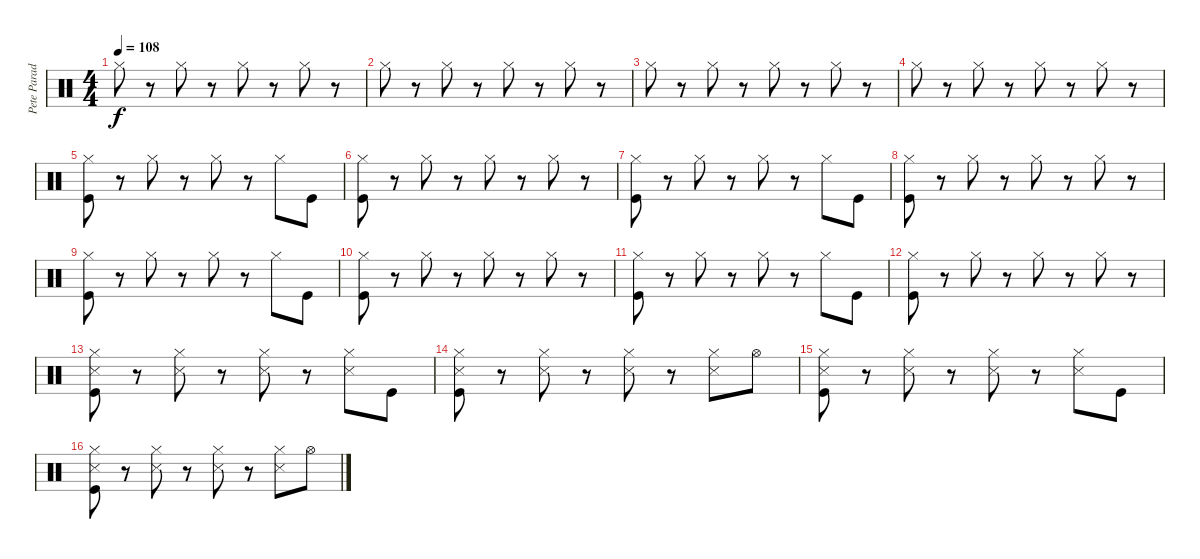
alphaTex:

\track ("Pete Parada - Drums" "Pete Parad") {instrument percussion}
\staff {score}
\articulation defaults
\ts (4 4)
\tempo 108
\clef neutral
\ks c "Hi-Hat (closed)".8{dy f}
r.8 "Hi-Hat (closed)".8 r.8 "Hi-Hat (closed)".8 r.8 "Hi-Hat (closed)".8 r.8 |
"Hi-Hat (closed)".8 r.8 "Hi-Hat (closed)".8 r.8 "Hi-Hat (closed)".8 r.8 "Hi-Hat (closed)".8 r.8 |
"Hi-Hat (closed)".8 r.8 "Hi-Hat (closed)".8 r.8 "Hi-Hat (closed)".8 r.8 "Hi-Hat (closed)".8 r.8 |
"Hi-Hat (closed)".8 r.8 "Hi-Hat (closed)".8 r.8 "Hi-Hat (closed)".8 r.8 "Hi-Hat (closed)".8 r.8 |
("Hi-Hat (closed)" "Kick (hit)").8 r.8 "Hi-Hat (closed)".8 r.8 "Hi-Hat (closed)".8 r.8 "Hi-Hat (closed)".8 "Kick (hit)".8 |
("Hi-Hat (closed)" "Kick (hit)").8 r.8 "Hi-Hat (closed)".8 r.8 "Hi-Hat (closed)".8 r.8 "Hi-Hat (closed)".8 r.8 |
("Hi-Hat (closed)" "Kick (hit)").8 r.8 "Hi-Hat (closed)".8 r.8 "Hi-Hat (closed)".8 r.8 "Hi-Hat (closed)".8 "Kick (hit)".8 |
("Hi-Hat (closed)" "Kick (hit)").8 r.8 "Hi-Hat (closed)".8 r.8 "Hi-Hat (closed)".8 r.8 "Hi-Hat (closed)".8 r.8 |
("Hi-Hat (closed)" "Kick (hit)").8 r.8 "Hi-Hat (closed)".8 r.8 "Hi-Hat (closed)".8 r.8 "Hi-Hat (closed)".8 "Kick (hit)".8 |
("Hi-Hat (closed)" "Kick (hit)").8 r.8 "Hi-Hat (closed)".8 r.8 "Hi-Hat (closed)".8 r.8 "Hi-Hat (closed)".8 r.8 |
("Hi-Hat (closed)" "Kick (hit)").8 r.8 "Hi-Hat (closed)".8 r.8 "Hi-Hat (closed)".8 r.8 "Hi-Hat (closed)".8 "Kick (hit)".8 |
("Hi-Hat (closed)" "Kick (hit)").8 r.8 "Hi-Hat (closed)".8 r.8 "Hi-Hat (closed)".8 r.8 "Hi-Hat (closed)".8 r.8 |
("Hi-Hat (closed)" "Metronome (hit)" "Kick (hit)").8 r.8 ("Hi-Hat (closed)" "Metronome (hit)").8 r.8 ("Hi-Hat (closed)" "Metronome (hit)").8 r.8 ("Hi-Hat (closed)" "Metronome (hit)").8 "Kick (hit)".8 |
("Hi-Hat (closed)" "Metronome (hit)" "Kick (hit)").8 r.8 ("Hi-Hat (closed)" "Metronome (hit)").8 r.8 ("Hi-Hat (closed)" "Metronome (hit)").8 r.8 ("Hi-Hat (closed)" "Metronome (hit)").8 "Hi-Hat (open)".8 |
("Hi-Hat (closed)" "Metronome (hit)" "Kick (hit)").8 r.8 ("Hi-Hat (closed)" "Metronome (hit)").8 r.8 ("Hi-Hat (closed)" "Metronome (hit)").8 r.8 ("Hi-Hat (closed)" "Metronome (hit)").8 "Kick (hit)".8 |
("Hi-Hat (closed)" "Metronome (hit)" "Kick (hit)").8 r.8 ("Hi-Hat (closed)" "Metronome (hit)").8 r.8 ("Hi-Hat (closed)" "Metronome (hit)").8 r.8 ("Hi-Hat (closed)" "Metronome (hit)").8 "Hi-Hat (open)".8
